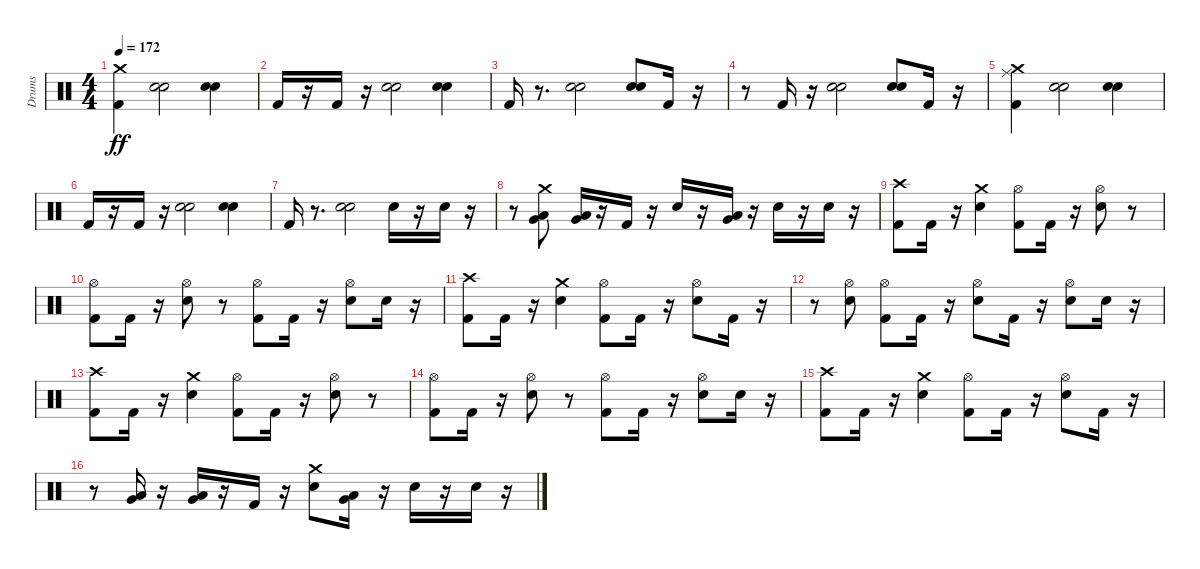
\track ("Drums" "Drums") {instrument percussion}
\staff {score}
\articulation defaults
\ts (4 4)
\tempo 172
\clef neutral
\ks c
("Kick (hit) 2" "Crash medium (hit)").4{dy ff} ("Electric Snare (hit)" "Electric Snare (hit)").2 ("Electric Snare (hit)" "Electric Snare (hit)").4 |
"Kick (hit) 2".16 r.16 "Kick (hit) 2".16 r.16 ("Electric Snare (hit)" "Electric Snare (hit)").2 ("Electric Snare (hit)" "Electric Snare (hit)").4 |
"Kick (hit) 2".16 r.8{d} ("Electric Snare (hit)" "Electric Snare (hit)").2 ("Electric Snare (hit)" "Electric Snare (hit)").8 "Kick (hit) 2".16 r.16 |
r.8 "Kick (hit) 2".16 r.16 ("Electric Snare (hit)" "Electric Snare (hit)").2 ("Electric Snare (hit)" "Electric Snare (hit)").8 "Kick (hit) 2".16 r.16 |
("Kick (hit) 2" "Crash medium (hit)" "Ride (middle)").4 ("Electric Snare (hit)" "Electric Snare (hit)").2 ("Electric Snare (hit)" "Electric Snare (hit)").4 |
"Kick (hit) 2".16 r.16 "Kick (hit) 2".16 r.16 ("Electric Snare (hit)" "Electric Snare (hit)").2 ("Electric Snare (hit)" "Electric Snare (hit)").4 |
"Kick (hit) 2".16 r.8{d} ("Electric Snare (hit)" "Electric Snare (hit)").2 "Electric Snare (hit)".16 r.16 "Electric Snare (hit)".16 r.16 |
r.8 ("Crash medium (hit)" "Low Tom (hit)" "Very Low Tom (hit)").8 ("Low Tom (hit)" "Very Low Tom (hit)").16 r.16 "Kick (hit) 2".16 r.16 "Electric Snare (hit)".16 r.16 ("Very Low Tom (hit)" "Low Floor Tom (hit)").16 r.16 "Electric Snare (hit)".16 r.16 "Electric Snare (hit)".16 r.16 |
("Kick (hit) 2" "Crash high (hit)").8 "Kick (hit) 2".16 r.16 ("Electric Snare (hit)" "Crash medium (hit)").4 ("Kick (hit) 2" "Hi-Hat (open)").8 "Kick (hit) 2".16 r.16 ("Electric Snare (hit)" "Hi-Hat (open)").8 r.8 |
("Kick (hit) 2" "Hi-Hat (open)").8 "Kick (hit) 2".16 r.16 ("Electric Snare (hit)" "Hi-Hat (open)").8 r.8 ("Kick (hit) 2" "Hi-Hat (open)").8 "Kick (hit) 2".16 r.16 ("Electric Snare (hit)" "Hi-Hat (open)").8 "Electric Snare (hit)".16 r.16 |
("Kick (hit) 2" "Crash high (hit)").8 "Kick (hit) 2".16 r.16 ("Electric Snare (hit)" "Crash medium (hit)").4 ("Kick (hit) 2" "Hi-Hat (open)").8 "Kick (hit) 2".16 r.16 ("Electric Snare (hit)" "Hi-Hat (open)").8 "Kick (hit) 2".16 r.16 |
r.8 ("Electric Snare (hit)" "Hi-Hat (open)").8 ("Kick (hit) 2" "Hi-Hat (open)").8 "Kick (hit) 2".16 r.16 ("Electric Snare (hit)" "Hi-Hat (open)").8 "Kick (hit) 2".16 r.16 ("Electric Snare (hit)" "Hi-Hat (open)").8 "Electric Snare (hit)".16 r.16 |
("Kick (hit) 2" "Crash high (hit)").8 "Kick (hit) 2".16 r.16 ("Electric Snare (hit)" "Crash medium (hit)").4 ("Kick (hit) 2" "Hi-Hat (open)").8 "Kick (hit) 2".16 r.16 ("Electric Snare (hit)" "Hi-Hat (open)").8 r.8 |
("Kick (hit) 2" "Hi-Hat (open)").8 "Kick (hit) 2".16 r.16 ("Electric Snare (hit)" "Hi-Hat (open)").8 r.8 ("Kick (hit) 2" "Hi-Hat (open)").8 "Kick (hit) 2".16 r.16 ("Electric Snare (hit)" "Hi-Hat (open)").8 "Electric Snare (hit)".16 r.16 |
("Kick (hit) 2" "Crash high (hit)").8 "Kick (hit) 2".16 r.16 ("Electric Snare (hit)" "Crash medium (hit)").4 ("Kick (hit) 2" "Hi-Hat (open)").8 "Kick (hit) 2".16 r.16 ("Electric Snare (hit)" "Hi-Hat (open)").8 "Kick (hit) 2".16 r.16 |
r.8 ("Low Tom (hit)" "Very Low Tom (hit)").16 r.16 ("Low Tom (hit)" "Very Low Tom (hit)").16 r.16 "Kick (hit) 2".16 r.16 ("Crash medium (hit)" "Electric Snare (hit)").8 ("Very Low Tom (hit)" "Low Floor Tom (hit)").16 r.16 "Electric Snare (hit)".16 r.16 "Electric Snare (hit)".16 r.16
